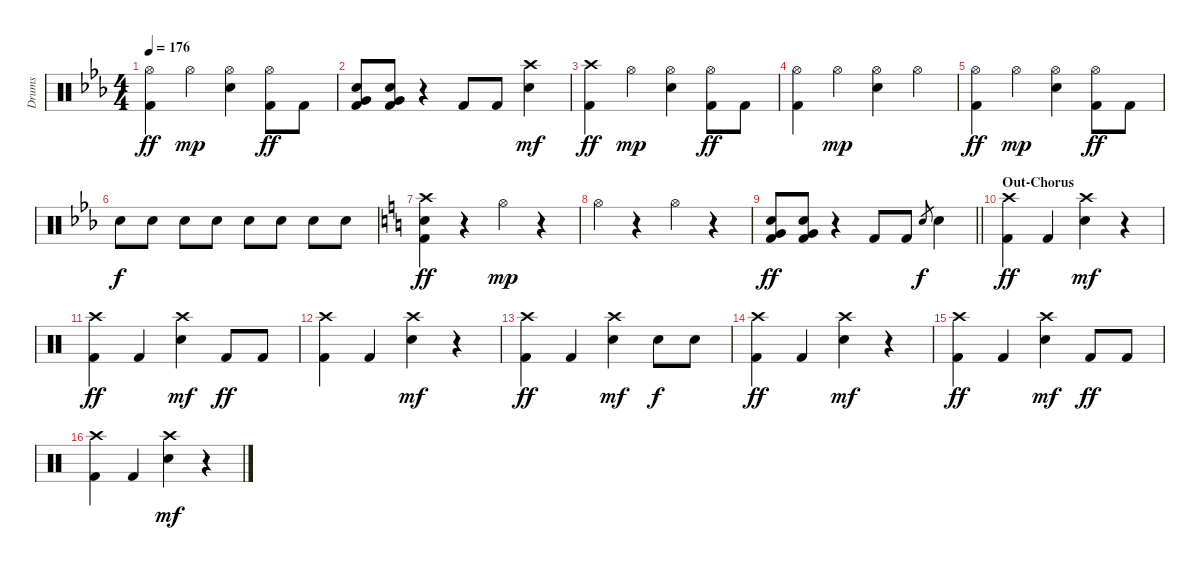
\track ("Drums" "Drums") {instrument percussion}
\staff {score}
\articulation defaults
\ts (4 4)
\tempo 176
\clef neutral
\ks eb
("Hi-Hat (open)" "Kick (hit) 2").4{dy ff} "Hi-Hat (open)".4{dy mp} ("Hi-Hat (open)" "Electric Snare (hit)").4 ("Hi-Hat (open)" "Kick (hit) 2").8{dy ff} "Kick (hit) 2".8 |
("Very Low Tom (hit)" "Electric Snare (hit)" "Kick (hit) 2").8 ("Very Low Tom (hit)" "Electric Snare (hit)" "Kick (hit) 2").8 r.4 "Kick (hit) 2".8 "Kick (hit) 2".8 ("Crash high (hit)" "Electric Snare (hit)").4{dy mf} |
("Crash high (hit)" "Kick (hit) 2").4{dy ff} "Hi-Hat (open)".4{dy mp} ("Hi-Hat (open)" "Electric Snare (hit)").4 ("Hi-Hat (open)" "Kick (hit) 2").8{dy ff} "Kick (hit) 2".8 |
("Hi-Hat (open)" "Kick (hit) 2").4 "Hi-Hat (open)".4{dy mp} ("Hi-Hat (open)" "Electric Snare (hit)").4 "Hi-Hat (open)".4 |
("Hi-Hat (open)" "Kick (hit) 2").4{dy ff} "Hi-Hat (open)".4{dy mp} ("Hi-Hat (open)" "Electric Snare (hit)").4 ("Hi-Hat (open)" "Kick (hit) 2").8{dy ff} "Kick (hit) 2".8 |
"Electric Snare (hit)".8{dy f} "Electric Snare (hit)".8 "Electric Snare (hit)".8 "Electric Snare (hit)".8 "Electric Snare (hit)".8 "Electric Snare (hit)".8 "Electric Snare (hit)".8 "Electric Snare (hit)".8 |
\ks c
("Crash high (hit)" "Electric Snare (hit)" "Kick (hit) 2").4{dy ff} r.4 "Hi-Hat (open)".4{dy mp} r.4 |
"Hi-Hat (open)".4 r.4 "Hi-Hat (open)".4 r.4 |
\barLineRight lightlight
("Very Low Tom (hit)" "Electric Snare (hit)" "Kick (hit) 2").8{dy ff} ("Very Low Tom (hit)" "Electric Snare (hit)" "Kick (hit) 2").8 r.4 "Kick (hit) 2".8 "Kick (hit) 2".8 "Electric Snare (hit)".8{gr dy f} "Electric Snare (hit)".4 |
\section ("" "Out-Chorus")
("Crash high (hit)" "Kick (hit) 2").4{dy ff} "Kick (hit) 2".4 ("Crash high (hit)" "Electric Snare (hit)").4{dy mf} r.4 |
("Crash high (hit)" "Kick (hit) 2").4{dy ff} "Kick (hit) 2".4 ("Crash high (hit)" "Electric Snare (hit)").4{dy mf} "Kick (hit) 2".8{dy ff} "Kick (hit) 2".8 |
("Crash high (hit)" "Kick (hit) 2").4 "Kick (hit) 2".4 ("Crash high (hit)" "Electric Snare (hit)").4{dy mf} r.4 |
("Crash high (hit)" "Kick (hit) 2").4{dy ff} "Kick (hit) 2".4 ("Crash high (hit)" "Electric Snare (hit)").4{dy mf} "Electric Snare (hit)".8{dy f} "Electric Snare (hit)".8 |
("Crash high (hit)" "Kick (hit) 2").4{dy ff} "Kick (hit) 2".4 ("Crash high (hit)" "Electric Snare (hit)").4{dy mf} r.4 |
("Crash high (hit)" "Kick (hit) 2").4{dy ff} "Kick (hit) 2".4 ("Crash high (hit)" "Electric Snare (hit)").4{dy mf} "Kick (hit) 2".8{dy ff} "Kick (hit) 2".8 |
("Crash high (hit)" "Kick (hit) 2").4 "Kick (hit) 2".4 ("Crash high (hit)" "Electric Snare (hit)").4{dy mf} r.4
